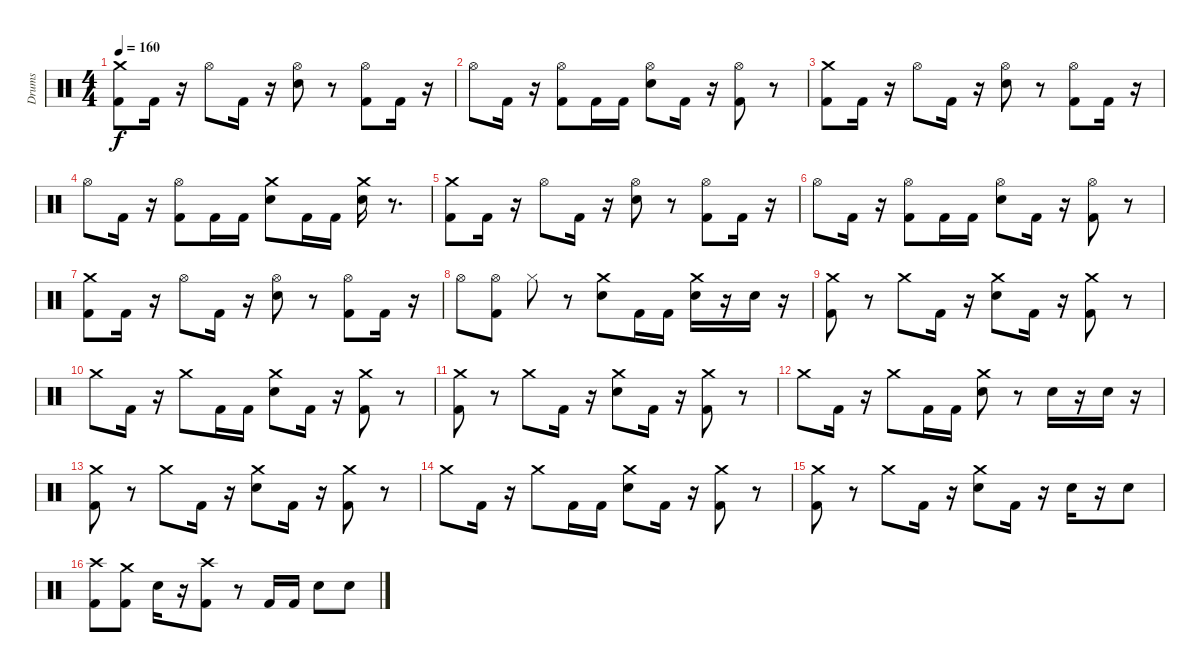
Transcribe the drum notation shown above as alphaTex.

\track ("Drums" "Drums") {instrument percussion}
\staff {score}
\articulation defaults
\ts (4 4)
\tempo 160
\clef neutral
\ks c
("Kick (hit) 2" "Crash medium (hit)").8{dy f} "Kick (hit) 2".16 r.16 "Hi-Hat (open)".8 "Kick (hit) 2".16 r.16 ("Electric Snare (hit)" "Hi-Hat (open)").8 r.8 ("Kick (hit) 2" "Hi-Hat (open)").8 "Kick (hit) 2".16 r.16 |
"Hi-Hat (open)".8 "Kick (hit) 2".16 r.16 ("Kick (hit) 2" "Hi-Hat (open)").8 "Kick (hit) 2".16 "Kick (hit) 2".16 ("Electric Snare (hit)" "Hi-Hat (open)").8 "Kick (hit) 2".16 r.16 ("Kick (hit) 2" "Hi-Hat (open)").8 r.8 |
("Kick (hit) 2" "Crash medium (hit)").8 "Kick (hit) 2".16 r.16 "Hi-Hat (open)".8 "Kick (hit) 2".16 r.16 ("Electric Snare (hit)" "Hi-Hat (open)").8 r.8 ("Kick (hit) 2" "Hi-Hat (open)").8 "Kick (hit) 2".16 r.16 |
"Hi-Hat (open)".8 "Kick (hit) 2".16 r.16 ("Kick (hit) 2" "Hi-Hat (open)").8 "Kick (hit) 2".16 "Kick (hit) 2".16 ("Electric Snare (hit)" "Crash medium (hit)").8 "Kick (hit) 2".16 "Kick (hit) 2".16 ("Crash medium (hit)" "Electric Snare (hit)").16 r.8{d} |
("Kick (hit) 2" "Crash medium (hit)").8 "Kick (hit) 2".16 r.16 "Hi-Hat (open)".8 "Kick (hit) 2".16 r.16 ("Electric Snare (hit)" "Hi-Hat (open)").8 r.8 ("Kick (hit) 2" "Hi-Hat (open)").8 "Kick (hit) 2".16 r.16 |
"Hi-Hat (open)".8 "Kick (hit) 2".16 r.16 ("Kick (hit) 2" "Hi-Hat (open)").8 "Kick (hit) 2".16 "Kick (hit) 2".16 ("Electric Snare (hit)" "Hi-Hat (open)").8 "Kick (hit) 2".16 r.16 ("Kick (hit) 2" "Hi-Hat (open)").8 r.8 |
("Kick (hit) 2" "Crash medium (hit)").8 "Kick (hit) 2".16 r.16 "Hi-Hat (open)".8 "Kick (hit) 2".16 r.16 ("Electric Snare (hit)" "Hi-Hat (open)").8 r.8 ("Kick (hit) 2" "Hi-Hat (open)").8 "Kick (hit) 2".16 r.16 |
"Hi-Hat (open)".8 ("Kick (hit) 2" "Hi-Hat (open)").8 "Hi-Hat (closed)".8 r.8 ("Electric Snare (hit)" "Crash medium (hit)").8 "Kick (hit) 2".16 "Kick (hit) 2".16 ("Crash medium (hit)" "Electric Snare (hit)").16 r.16 "Electric Snare (hit)".16 r.16 |
("Kick (hit) 2" "Crash medium (hit)").8 r.8 "Crash medium (hit)".8 "Kick (hit) 2".16 r.16 ("Electric Snare (hit)" "Crash medium (hit)").8 "Kick (hit) 2".16 r.16 ("Kick (hit) 2" "Crash medium (hit)").8 r.8 |
"Crash medium (hit)".8 "Kick (hit) 2".16 r.16 "Crash medium (hit)".8 "Kick (hit) 2".16 "Kick (hit) 2".16 ("Electric Snare (hit)" "Crash medium (hit)").8 "Kick (hit) 2".16 r.16 ("Kick (hit) 2" "Crash medium (hit)").8 r.8 |
("Kick (hit) 2" "Crash medium (hit)").8 r.8 "Crash medium (hit)".8 "Kick (hit) 2".16 r.16 ("Electric Snare (hit)" "Crash medium (hit)").8 "Kick (hit) 2".16 r.16 ("Kick (hit) 2" "Crash medium (hit)").8 r.8 |
"Crash medium (hit)".8 "Kick (hit) 2".16 r.16 "Crash medium (hit)".8 "Kick (hit) 2".16 "Kick (hit) 2".16 ("Electric Snare (hit)" "Crash medium (hit)").8 r.8 "Electric Snare (hit)".16 r.16 "Electric Snare (hit)".16 r.16 |
("Kick (hit) 2" "Crash medium (hit)").8 r.8 "Crash medium (hit)".8 "Kick (hit) 2".16 r.16 ("Electric Snare (hit)" "Crash medium (hit)").8 "Kick (hit) 2".16 r.16 ("Kick (hit) 2" "Crash medium (hit)").8 r.8 |
"Crash medium (hit)".8 "Kick (hit) 2".16 r.16 "Crash medium (hit)".8 "Kick (hit) 2".16 "Kick (hit) 2".16 ("Electric Snare (hit)" "Crash medium (hit)").8 "Kick (hit) 2".16 r.16 ("Kick (hit) 2" "Crash medium (hit)").8 r.8 |
("Kick (hit) 2" "Crash medium (hit)").8 r.8 "Crash medium (hit)".8 "Kick (hit) 2".16 r.16 ("Electric Snare (hit)" "Crash medium (hit)").8 "Kick (hit) 2".16 r.16 "Electric Snare (hit)".16 r.16 "Electric Snare (hit)".8 |
("Crash high (hit)" "Kick (hit) 2").8 ("Crash medium (hit)" "Kick (hit) 2").8 "Electric Snare (hit)".16 r.16 ("Crash high (hit)" "Kick (hit) 2").8 r.8 "Kick (hit) 2".16 "Kick (hit) 2".16 "Electric Snare (hit)".8 "Electric Snare (hit)".8
